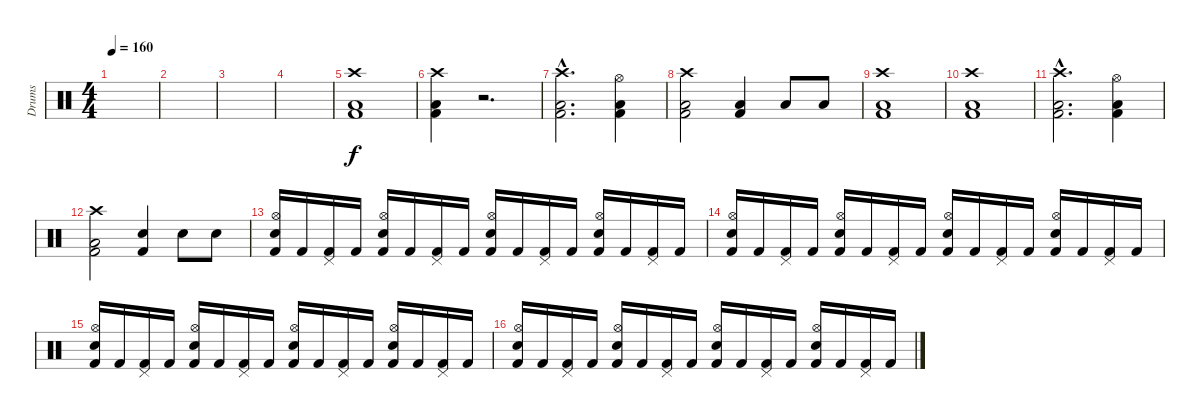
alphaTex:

\track ("Drums" "Drums") {instrument percussion}
\staff {score}
\articulation defaults
\ts (4 4)
\tempo 160
\clef neutral
\ks c
|
|
|
|
("Crash high (hit)" "Low Floor Tom (hit)" "Kick (hit) 2").1 |
("Crash high (hit)" "Low Floor Tom (hit)" "Kick (hit) 2").4 r.2{d} |
("Crash high (hit)"{hac} "Low Floor Tom (hit)"{hac} "Kick (hit) 2"{hac}).2{d} ("Hi-Hat (open)" "Low Floor Tom (hit)" "Kick (hit) 2").4 |
("Crash high (hit)" "Low Floor Tom (hit)" "Kick (hit) 2").2 ("Low Floor Tom (hit)" "Kick (hit) 2").4 "Low Tom (hit)".8 "Low Tom (hit)".8 |
("Crash high (hit)" "Low Floor Tom (hit)" "Kick (hit) 2").1 |
("Crash high (hit)" "Low Floor Tom (hit)" "Kick (hit) 2").1 |
("Crash high (hit)"{hac} "Low Floor Tom (hit)"{hac} "Kick (hit) 2"{hac}).2{d} ("Hi-Hat (open)" "Low Floor Tom (hit)" "Kick (hit) 2").4 |
("Crash high (hit)" "Low Floor Tom (hit)" "Kick (hit) 2").2 ("Electric Snare (hit)" "Kick (hit) 2").4 "Snare (hit) 2".8 "Snare (hit) 2".8 |
("Hi-Hat (open)" "Electric Snare (hit)" "Kick (hit) 2").16 "Kick (hit) 2".16 ("Pedal Hi-Hat (hit)" "Kick (hit) 2").16 "Kick (hit) 2".16 ("Hi-Hat (open)" "Snare (hit) 2" "Kick (hit) 2").16 "Kick (hit) 2".16 ("Pedal Hi-Hat (hit)" "Kick (hit) 2").16 "Kick (hit) 2".16 ("Hi-Hat (open)" "Electric Snare (hit)" "Kick (hit) 2").16 "Kick (hit) 2".16 ("Pedal Hi-Hat (hit)" "Kick (hit) 2").16 "Kick (hit) 2".16 ("Hi-Hat (open)" "Snare (hit) 2" "Kick (hit) 2").16 "Kick (hit) 2".16 ("Pedal Hi-Hat (hit)" "Kick (hit) 2").16 "Kick (hit) 2".16 |
("Hi-Hat (open)" "Electric Snare (hit)" "Kick (hit) 2").16 "Kick (hit) 2".16 ("Pedal Hi-Hat (hit)" "Kick (hit) 2").16 "Kick (hit) 2".16 ("Hi-Hat (open)" "Snare (hit) 2" "Kick (hit) 2").16 "Kick (hit) 2".16 ("Pedal Hi-Hat (hit)" "Kick (hit) 2").16 "Kick (hit) 2".16 ("Hi-Hat (open)" "Electric Snare (hit)" "Kick (hit) 2").16 "Kick (hit) 2".16 ("Pedal Hi-Hat (hit)" "Kick (hit) 2").16 "Kick (hit) 2".16 ("Hi-Hat (open)" "Snare (hit) 2" "Kick (hit) 2").16 "Kick (hit) 2".16 ("Pedal Hi-Hat (hit)" "Kick (hit) 2").16 "Kick (hit) 2".16 |
("Hi-Hat (open)" "Electric Snare (hit)" "Kick (hit) 2").16 "Kick (hit) 2".16 ("Pedal Hi-Hat (hit)" "Kick (hit) 2").16 "Kick (hit) 2".16 ("Hi-Hat (open)" "Snare (hit) 2" "Kick (hit) 2").16 "Kick (hit) 2".16 ("Pedal Hi-Hat (hit)" "Kick (hit) 2").16 "Kick (hit) 2".16 ("Hi-Hat (open)" "Electric Snare (hit)" "Kick (hit) 2").16 "Kick (hit) 2".16 ("Pedal Hi-Hat (hit)" "Kick (hit) 2").16 "Kick (hit) 2".16 ("Hi-Hat (open)" "Snare (hit) 2" "Kick (hit) 2").16 "Kick (hit) 2".16 ("Pedal Hi-Hat (hit)" "Kick (hit) 2").16 "Kick (hit) 2".16 |
("Hi-Hat (open)" "Electric Snare (hit)" "Kick (hit) 2").16 "Kick (hit) 2".16 ("Pedal Hi-Hat (hit)" "Kick (hit) 2").16 "Kick (hit) 2".16 ("Hi-Hat (open)" "Snare (hit) 2" "Kick (hit) 2").16 "Kick (hit) 2".16 ("Pedal Hi-Hat (hit)" "Kick (hit) 2").16 "Kick (hit) 2".16 ("Hi-Hat (open)" "Electric Snare (hit)" "Kick (hit) 2").16 "Kick (hit) 2".16 ("Pedal Hi-Hat (hit)" "Kick (hit) 2").16 "Kick (hit) 2".16 ("Hi-Hat (open)" "Snare (hit) 2" "Kick (hit) 2").16 "Kick (hit) 2".16 ("Pedal Hi-Hat (hit)" "Kick (hit) 2").16 "Kick (hit) 2".16
